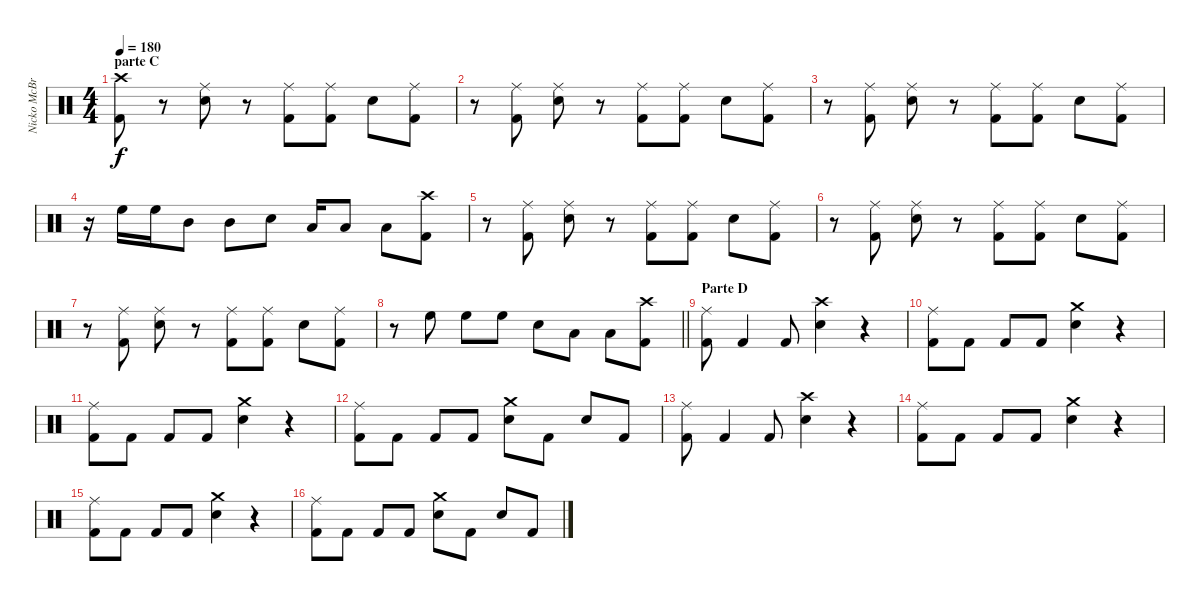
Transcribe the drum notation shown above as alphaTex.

\track ("Nicko McBrain" "Nicko McBr") {instrument percussion}
\staff {score}
\articulation defaults
\ts (4 4)
\section ("" "parte C")
\tempo 180
\clef neutral
\ks c
("Crash high (hit)" "Kick (hit) 2").8{dy f} r.8 ("Ride (middle)" "Snare (hit) 2").8 r.8 ("Ride (middle)" "Kick (hit) 2").8 ("Ride (middle)" "Kick (hit) 2").8 "Snare (hit) 2".8 ("Ride (middle)" "Kick (hit) 2").8 |
r.8 ("Ride (middle)" "Kick (hit) 2").8 ("Ride (middle)" "Snare (hit) 2").8 r.8 ("Ride (middle)" "Kick (hit) 2").8 ("Ride (middle)" "Kick (hit) 2").8 "Snare (hit) 2".8 ("Ride (middle)" "Kick (hit) 2").8 |
r.8 ("Ride (middle)" "Kick (hit) 2").8 ("Ride (middle)" "Snare (hit) 2").8 r.8 ("Ride (middle)" "Kick (hit) 2").8 ("Ride (middle)" "Kick (hit) 2").8 "Snare (hit) 2".8 ("Ride (middle)" "Kick (hit) 2").8 |
r.16 "High Floor Tom (hit)".16 "High Floor Tom (hit)".16 "Mid Tom (hit)".8 "Mid Tom (hit)".8 "Snare (hit) 2".8 "Low Tom (hit)".16 "Low Tom (hit)".8 "Low Floor Tom (hit)".8 ("Crash high (hit)" "Kick (hit) 2").8 |
r.8 ("Ride (middle)" "Kick (hit) 2").8 ("Ride (middle)" "Snare (hit) 2").8 r.8 ("Ride (middle)" "Kick (hit) 2").8 ("Ride (middle)" "Kick (hit) 2").8 "Snare (hit) 2".8 ("Ride (middle)" "Kick (hit) 2").8 |
r.8 ("Ride (middle)" "Kick (hit) 2").8 ("Ride (middle)" "Snare (hit) 2").8 r.8 ("Ride (middle)" "Kick (hit) 2").8 ("Ride (middle)" "Kick (hit) 2").8 "Snare (hit) 2".8 ("Ride (middle)" "Kick (hit) 2").8 |
r.8 ("Ride (middle)" "Kick (hit) 2").8 ("Ride (middle)" "Snare (hit) 2").8 r.8 ("Ride (middle)" "Kick (hit) 2").8 ("Ride (middle)" "Kick (hit) 2").8 "Snare (hit) 2".8 ("Ride (middle)" "Kick (hit) 2").8 |
\barLineRight lightlight
r.8 "High Floor Tom (hit)".8 "High Floor Tom (hit)".8 "High Floor Tom (hit)".8 "Snare (hit) 2".8 "Low Tom (hit)".8 "Low Floor Tom (hit)".8 ("Crash high (hit)" "Kick (hit) 2").8 |
\section ("" "Parte D")
("Ride (middle)" "Kick (hit) 2").8 "Kick (hit) 2".4 "Kick (hit) 2".8 ("Crash high (hit)" "Snare (hit) 2").4 r.4 |
("Ride (middle)" "Kick (hit) 2").8 "Kick (hit) 2".8 "Kick (hit) 2".8 "Kick (hit) 2".8 ("Crash medium (hit)" "Snare (hit) 2").4 r.4 |
("Ride (middle)" "Kick (hit) 2").8 "Kick (hit) 2".8 "Kick (hit) 2".8 "Kick (hit) 2".8 ("Crash medium (hit)" "Snare (hit) 2").4 r.4 |
("Ride (middle)" "Kick (hit) 2").8 "Kick (hit) 2".8 "Kick (hit) 2".8 "Kick (hit) 2".8 ("Crash medium (hit)" "Snare (hit) 2").8 "Kick (hit) 2".8 "Snare (hit) 2".8 "Kick (hit) 2".8 |
("Ride (middle)" "Kick (hit) 2").8 "Kick (hit) 2".4 "Kick (hit) 2".8 ("Crash high (hit)" "Snare (hit) 2").4 r.4 |
("Ride (middle)" "Kick (hit) 2").8 "Kick (hit) 2".8 "Kick (hit) 2".8 "Kick (hit) 2".8 ("Crash medium (hit)" "Snare (hit) 2").4 r.4 |
("Ride (middle)" "Kick (hit) 2").8 "Kick (hit) 2".8 "Kick (hit) 2".8 "Kick (hit) 2".8 ("Crash medium (hit)" "Snare (hit) 2").4 r.4 |
("Ride (middle)" "Kick (hit) 2").8 "Kick (hit) 2".8 "Kick (hit) 2".8 "Kick (hit) 2".8 ("Crash medium (hit)" "Snare (hit) 2").8 "Kick (hit) 2".8 "Snare (hit) 2".8 "Kick (hit) 2".8
